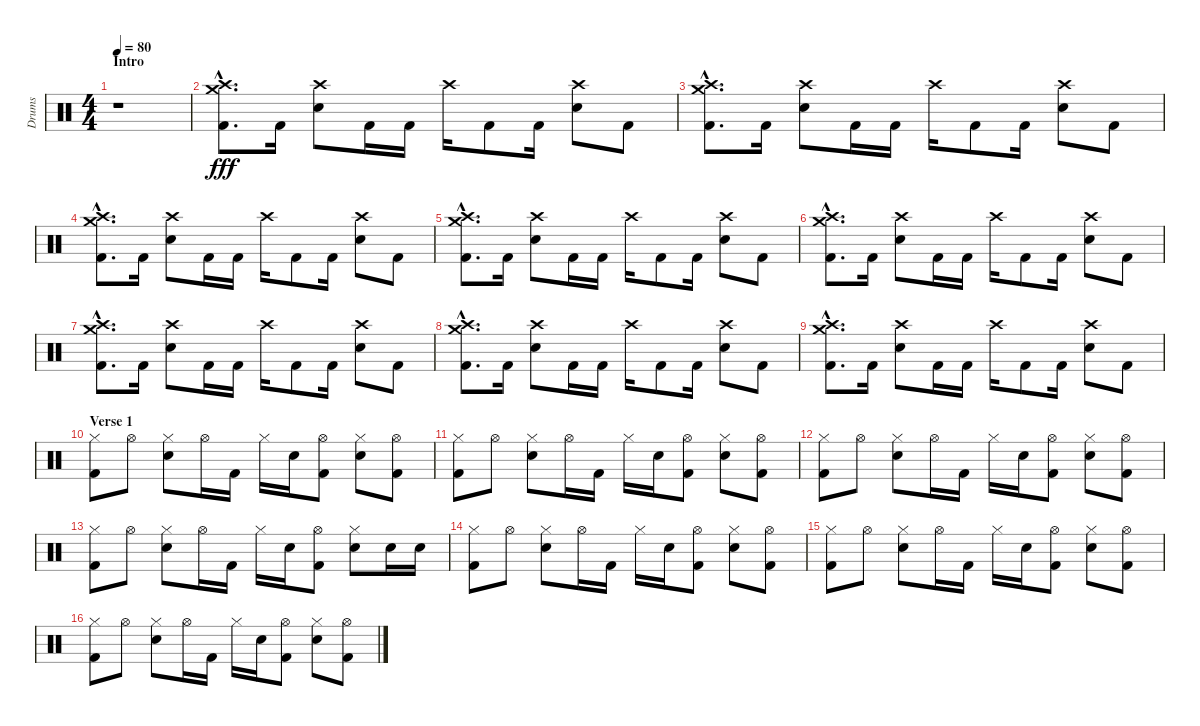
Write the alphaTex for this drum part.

\track ("Drums" "Drums") {instrument percussion}
\staff {score}
\articulation defaults
\ts (4 4)
\section ("" "Intro")
\tempo 80
\clef neutral
\ks c
r.1{dy fff} |
("Crash high (hit)"{hac} "Crash medium (hit)"{hac} "Kick (hit) 2"{hac}).8{d} "Kick (hit) 2".16 ("Crash high (hit)" "Electric Snare (hit)").8 "Kick (hit) 2".16 "Kick (hit) 2".16 "Crash high (hit)".16 "Kick (hit) 2".8 "Kick (hit) 2".16 ("Crash high (hit)" "Electric Snare (hit)").8 "Kick (hit) 2".8 |
("Crash high (hit)"{hac} "Crash medium (hit)"{hac} "Kick (hit) 2"{hac}).8{d} "Kick (hit) 2".16 ("Crash high (hit)" "Electric Snare (hit)").8 "Kick (hit) 2".16 "Kick (hit) 2".16 "Crash high (hit)".16 "Kick (hit) 2".8 "Kick (hit) 2".16 ("Crash high (hit)" "Electric Snare (hit)").8 "Kick (hit) 2".8 |
("Crash high (hit)"{hac} "Crash medium (hit)"{hac} "Kick (hit) 2"{hac}).8{d} "Kick (hit) 2".16 ("Crash high (hit)" "Electric Snare (hit)").8 "Kick (hit) 2".16 "Kick (hit) 2".16 "Crash high (hit)".16 "Kick (hit) 2".8 "Kick (hit) 2".16 ("Crash high (hit)" "Electric Snare (hit)").8 "Kick (hit) 2".8 |
("Crash high (hit)"{hac} "Crash medium (hit)"{hac} "Kick (hit) 2"{hac}).8{d} "Kick (hit) 2".16 ("Crash high (hit)" "Electric Snare (hit)").8 "Kick (hit) 2".16 "Kick (hit) 2".16 "Crash high (hit)".16 "Kick (hit) 2".8 "Kick (hit) 2".16 ("Crash high (hit)" "Electric Snare (hit)").8 "Kick (hit) 2".8 |
("Crash high (hit)"{hac} "Crash medium (hit)"{hac} "Kick (hit) 2"{hac}).8{d} "Kick (hit) 2".16 ("Crash high (hit)" "Electric Snare (hit)").8 "Kick (hit) 2".16 "Kick (hit) 2".16 "Crash high (hit)".16 "Kick (hit) 2".8 "Kick (hit) 2".16 ("Crash high (hit)" "Electric Snare (hit)").8 "Kick (hit) 2".8 |
("Crash high (hit)"{hac} "Crash medium (hit)"{hac} "Kick (hit) 2"{hac}).8{d} "Kick (hit) 2".16 ("Crash high (hit)" "Electric Snare (hit)").8 "Kick (hit) 2".16 "Kick (hit) 2".16 "Crash high (hit)".16 "Kick (hit) 2".8 "Kick (hit) 2".16 ("Crash high (hit)" "Electric Snare (hit)").8 "Kick (hit) 2".8 |
("Crash high (hit)"{hac} "Crash medium (hit)"{hac} "Kick (hit) 2"{hac}).8{d} "Kick (hit) 2".16 ("Crash high (hit)" "Electric Snare (hit)").8 "Kick (hit) 2".16 "Kick (hit) 2".16 "Crash high (hit)".16 "Kick (hit) 2".8 "Kick (hit) 2".16 ("Crash high (hit)" "Electric Snare (hit)").8 "Kick (hit) 2".8 |
("Crash high (hit)"{hac} "Crash medium (hit)"{hac} "Kick (hit) 2"{hac}).8{d} "Kick (hit) 2".16 ("Crash high (hit)" "Electric Snare (hit)").8 "Kick (hit) 2".16 "Kick (hit) 2".16 "Crash high (hit)".16 "Kick (hit) 2".8 "Kick (hit) 2".16 ("Crash high (hit)" "Electric Snare (hit)").8 "Kick (hit) 2".8 |
\section ("" "Verse 1")
("Hi-Hat (closed)" "Kick (hit) 2").8 "Hi-Hat (open)".8 ("Hi-Hat (closed)" "Electric Snare (hit)").8 "Hi-Hat (open)".16 "Kick (hit) 2".16 "Hi-Hat (closed)".16 "Electric Snare (hit)".16 ("Hi-Hat (open)" "Kick (hit) 2").8 ("Hi-Hat (closed)" "Electric Snare (hit)").8 ("Hi-Hat (open)" "Kick (hit) 2").8 |
("Hi-Hat (closed)" "Kick (hit) 2").8 "Hi-Hat (open)".8 ("Hi-Hat (closed)" "Electric Snare (hit)").8 "Hi-Hat (open)".16 "Kick (hit) 2".16 "Hi-Hat (closed)".16 "Electric Snare (hit)".16 ("Hi-Hat (open)" "Kick (hit) 2").8 ("Hi-Hat (closed)" "Electric Snare (hit)").8 ("Hi-Hat (open)" "Kick (hit) 2").8 |
("Hi-Hat (closed)" "Kick (hit) 2").8 "Hi-Hat (open)".8 ("Hi-Hat (closed)" "Electric Snare (hit)").8 "Hi-Hat (open)".16 "Kick (hit) 2".16 "Hi-Hat (closed)".16 "Electric Snare (hit)".16 ("Hi-Hat (open)" "Kick (hit) 2").8 ("Hi-Hat (closed)" "Electric Snare (hit)").8 ("Hi-Hat (open)" "Kick (hit) 2").8 |
("Hi-Hat (closed)" "Kick (hit) 2").8 "Hi-Hat (open)".8 ("Hi-Hat (closed)" "Electric Snare (hit)").8 "Hi-Hat (open)".16 "Kick (hit) 2".16 "Hi-Hat (closed)".16 "Electric Snare (hit)".16 ("Hi-Hat (open)" "Kick (hit) 2").8 ("Hi-Hat (closed)" "Electric Snare (hit)").8 "Electric Snare (hit)".16 "Electric Snare (hit)".16 |
("Hi-Hat (closed)" "Kick (hit) 2").8 "Hi-Hat (open)".8 ("Hi-Hat (closed)" "Electric Snare (hit)").8 "Hi-Hat (open)".16 "Kick (hit) 2".16 "Hi-Hat (closed)".16 "Electric Snare (hit)".16 ("Hi-Hat (open)" "Kick (hit) 2").8 ("Hi-Hat (closed)" "Electric Snare (hit)").8 ("Hi-Hat (open)" "Kick (hit) 2").8 |
("Hi-Hat (closed)" "Kick (hit) 2").8 "Hi-Hat (open)".8 ("Hi-Hat (closed)" "Electric Snare (hit)").8 "Hi-Hat (open)".16 "Kick (hit) 2".16 "Hi-Hat (closed)".16 "Electric Snare (hit)".16 ("Hi-Hat (open)" "Kick (hit) 2").8 ("Hi-Hat (closed)" "Electric Snare (hit)").8 ("Hi-Hat (open)" "Kick (hit) 2").8 |
("Hi-Hat (closed)" "Kick (hit) 2").8 "Hi-Hat (open)".8 ("Hi-Hat (closed)" "Electric Snare (hit)").8 "Hi-Hat (open)".16 "Kick (hit) 2".16 "Hi-Hat (closed)".16 "Electric Snare (hit)".16 ("Hi-Hat (open)" "Kick (hit) 2").8 ("Hi-Hat (closed)" "Electric Snare (hit)").8 ("Hi-Hat (open)" "Kick (hit) 2").8
